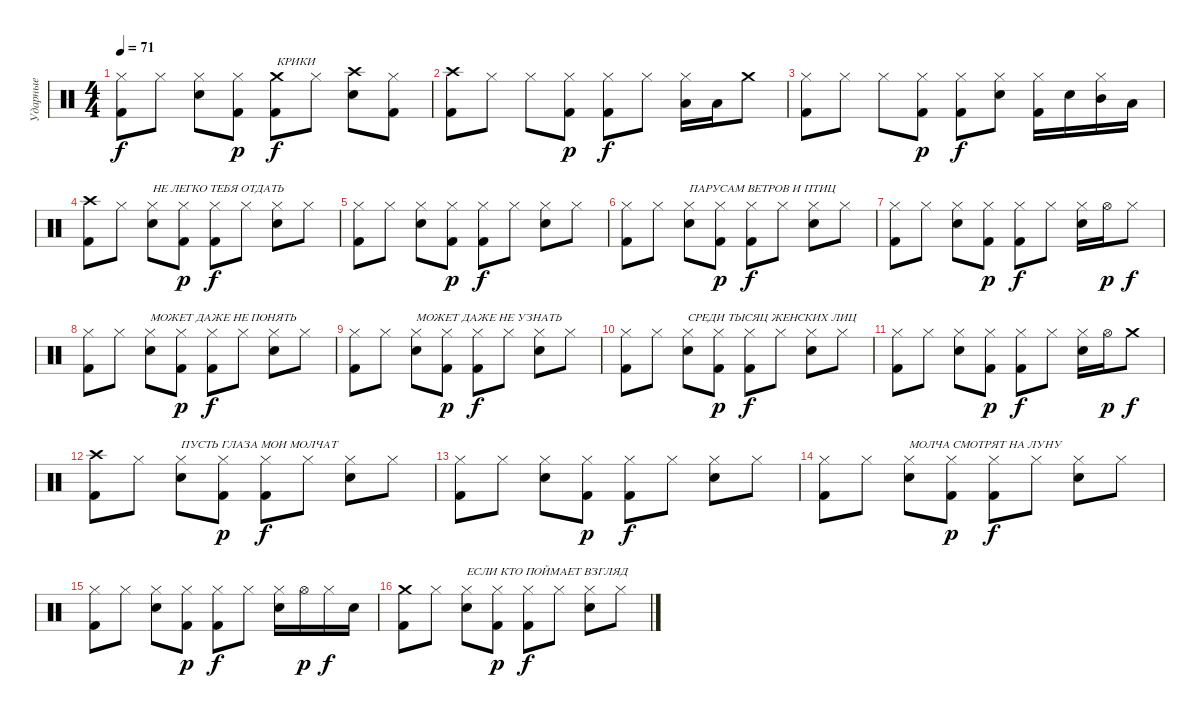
\track ("Ударные" "Ударные") {instrument percussion}
\staff {score}
\articulation defaults
\ts (4 4)
\tempo 71
\clef neutral
\ks c
("Hi-Hat (closed)" "Kick (hit) 2").8{dy f} "Hi-Hat (closed)".8 ("Hi-Hat (closed)" "Snare (hit) 2").8 ("Hi-Hat (closed)" "Kick (hit) 2").8{dy p} ("Crash medium (hit)" "Kick (hit) 2").8{txt "КРИКИ" dy f} "Hi-Hat (closed)".8 ("Crash high (hit)" "Snare (hit) 2").8 ("Hi-Hat (closed)" "Kick (hit) 2").8 |
("Crash high (hit)" "Kick (hit) 2").8 "Hi-Hat (closed)".8 "Hi-Hat (closed)".8 ("Hi-Hat (closed)" "Kick (hit) 2").8{dy p} ("Hi-Hat (closed)" "Kick (hit) 2").8{dy f} "Hi-Hat (closed)".8 ("Hi-Hat (closed)" "Low Tom (hit)").16 "Low Tom (hit)".16 "Crash medium (hit)".8 |
("Hi-Hat (closed)" "Kick (hit) 2").8 "Hi-Hat (closed)".8 "Hi-Hat (closed)".8 ("Hi-Hat (closed)" "Kick (hit) 2").8{dy p} ("Hi-Hat (closed)" "Kick (hit) 2").8{dy f} ("Hi-Hat (closed)" "Snare (hit) 2").8 ("Hi-Hat (closed)" "Kick (hit) 2").16 "Snare (hit) 2".16 ("Hi-Hat (closed)" "Mid Tom (hit)").16 "Low Tom (hit)".16 |
("Crash high (hit)" "Kick (hit) 2").8 "Hi-Hat (closed)".8 ("Hi-Hat (closed)" "Snare (hit) 2").8{txt "НЕ ЛЕГКО ТЕБЯ ОТДАТЬ"} ("Hi-Hat (closed)" "Kick (hit) 2").8{dy p} ("Hi-Hat (closed)" "Kick (hit) 2").8{dy f} "Hi-Hat (closed)".8 ("Hi-Hat (closed)" "Snare (hit) 2").8 "Hi-Hat (closed)".8 |
("Hi-Hat (closed)" "Kick (hit) 2").8 "Hi-Hat (closed)".8 ("Hi-Hat (closed)" "Snare (hit) 2").8 ("Hi-Hat (closed)" "Kick (hit) 2").8{dy p} ("Hi-Hat (closed)" "Kick (hit) 2").8{dy f} "Hi-Hat (closed)".8 ("Hi-Hat (closed)" "Snare (hit) 2").8 "Hi-Hat (closed)".8 |
("Hi-Hat (closed)" "Kick (hit) 2").8 "Hi-Hat (closed)".8 ("Hi-Hat (closed)" "Snare (hit) 2").8{txt "ПАРУСАМ ВЕТРОВ И ПТИЦ"} ("Hi-Hat (closed)" "Kick (hit) 2").8{dy p} ("Hi-Hat (closed)" "Kick (hit) 2").8{dy f} "Hi-Hat (closed)".8 ("Hi-Hat (closed)" "Snare (hit) 2").8 "Hi-Hat (closed)".8 |
("Hi-Hat (closed)" "Kick (hit) 2").8 "Hi-Hat (closed)".8 ("Hi-Hat (closed)" "Snare (hit) 2").8 ("Hi-Hat (closed)" "Kick (hit) 2").8{dy p} ("Hi-Hat (closed)" "Kick (hit) 2").8{dy f} "Hi-Hat (closed)".8 ("Hi-Hat (closed)" "Snare (hit) 2").16 "Hi-Hat (open)".16{dy p} "Hi-Hat (closed)".8{dy f} |
("Hi-Hat (closed)" "Kick (hit) 2").8 "Hi-Hat (closed)".8 ("Hi-Hat (closed)" "Snare (hit) 2").8{txt "МОЖЕТ ДАЖЕ НЕ ПОНЯТЬ"} ("Hi-Hat (closed)" "Kick (hit) 2").8{dy p} ("Hi-Hat (closed)" "Kick (hit) 2").8{dy f} "Hi-Hat (closed)".8 ("Hi-Hat (closed)" "Snare (hit) 2").8 "Hi-Hat (closed)".8 |
("Hi-Hat (closed)" "Kick (hit) 2").8 "Hi-Hat (closed)".8 ("Hi-Hat (closed)" "Snare (hit) 2").8{txt "МОЖЕТ ДАЖЕ НЕ УЗНАТЬ"} ("Hi-Hat (closed)" "Kick (hit) 2").8{dy p} ("Hi-Hat (closed)" "Kick (hit) 2").8{dy f} "Hi-Hat (closed)".8 ("Hi-Hat (closed)" "Snare (hit) 2").8 "Hi-Hat (closed)".8 |
("Hi-Hat (closed)" "Kick (hit) 2").8 "Hi-Hat (closed)".8 ("Hi-Hat (closed)" "Snare (hit) 2").8{txt "СРЕДИ ТЫСЯЦ ЖЕНСКИХ ЛИЦ"} ("Hi-Hat (closed)" "Kick (hit) 2").8{dy p} ("Hi-Hat (closed)" "Kick (hit) 2").8{dy f} "Hi-Hat (closed)".8 ("Hi-Hat (closed)" "Snare (hit) 2").8 "Hi-Hat (closed)".8 |
("Hi-Hat (closed)" "Kick (hit) 2").8 "Hi-Hat (closed)".8 ("Hi-Hat (closed)" "Snare (hit) 2").8 ("Hi-Hat (closed)" "Kick (hit) 2").8{dy p} ("Hi-Hat (closed)" "Kick (hit) 2").8{dy f} "Hi-Hat (closed)".8 ("Hi-Hat (closed)" "Snare (hit) 2").16 "Hi-Hat (open)".16{dy p} "Crash medium (hit)".8{dy f} |
("Crash high (hit)" "Kick (hit) 2").8 "Hi-Hat (closed)".8 ("Hi-Hat (closed)" "Snare (hit) 2").8{txt "ПУСТЬ ГЛАЗА МОИ МОЛЧАТ"} ("Hi-Hat (closed)" "Kick (hit) 2").8{dy p} ("Hi-Hat (closed)" "Kick (hit) 2").8{dy f} "Hi-Hat (closed)".8 ("Hi-Hat (closed)" "Snare (hit) 2").8 "Hi-Hat (closed)".8 |
("Hi-Hat (closed)" "Kick (hit) 2").8 "Hi-Hat (closed)".8 ("Hi-Hat (closed)" "Snare (hit) 2").8 ("Hi-Hat (closed)" "Kick (hit) 2").8{dy p} ("Hi-Hat (closed)" "Kick (hit) 2").8{dy f} "Hi-Hat (closed)".8 ("Hi-Hat (closed)" "Snare (hit) 2").8 "Hi-Hat (closed)".8 |
("Hi-Hat (closed)" "Kick (hit) 2").8 "Hi-Hat (closed)".8 ("Hi-Hat (closed)" "Snare (hit) 2").8{txt "МОЛЧА СМОТРЯТ НА ЛУНУ"} ("Hi-Hat (closed)" "Kick (hit) 2").8{dy p} ("Hi-Hat (closed)" "Kick (hit) 2").8{dy f} "Hi-Hat (closed)".8 ("Hi-Hat (closed)" "Snare (hit) 2").8 "Hi-Hat (closed)".8 |
("Hi-Hat (closed)" "Kick (hit) 2").8 "Hi-Hat (closed)".8 ("Hi-Hat (closed)" "Snare (hit) 2").8 ("Hi-Hat (closed)" "Kick (hit) 2").8{dy p} ("Hi-Hat (closed)" "Kick (hit) 2").8{dy f} "Hi-Hat (closed)".8 ("Hi-Hat (closed)" "Snare (hit) 2").16 "Hi-Hat (open)".16{dy p} "Hi-Hat (closed)".16{dy f} "Snare (hit) 2".16 |
("Crash medium (hit)" "Kick (hit) 2").8 "Hi-Hat (closed)".8 ("Hi-Hat (closed)" "Snare (hit) 2").8{txt "ЕСЛИ КТО ПОЙМАЕТ ВЗГЛЯД"} ("Hi-Hat (closed)" "Kick (hit) 2").8{dy p} ("Hi-Hat (closed)" "Kick (hit) 2").8{dy f} "Hi-Hat (closed)".8 ("Hi-Hat (closed)" "Snare (hit) 2").8 "Hi-Hat (closed)".8
